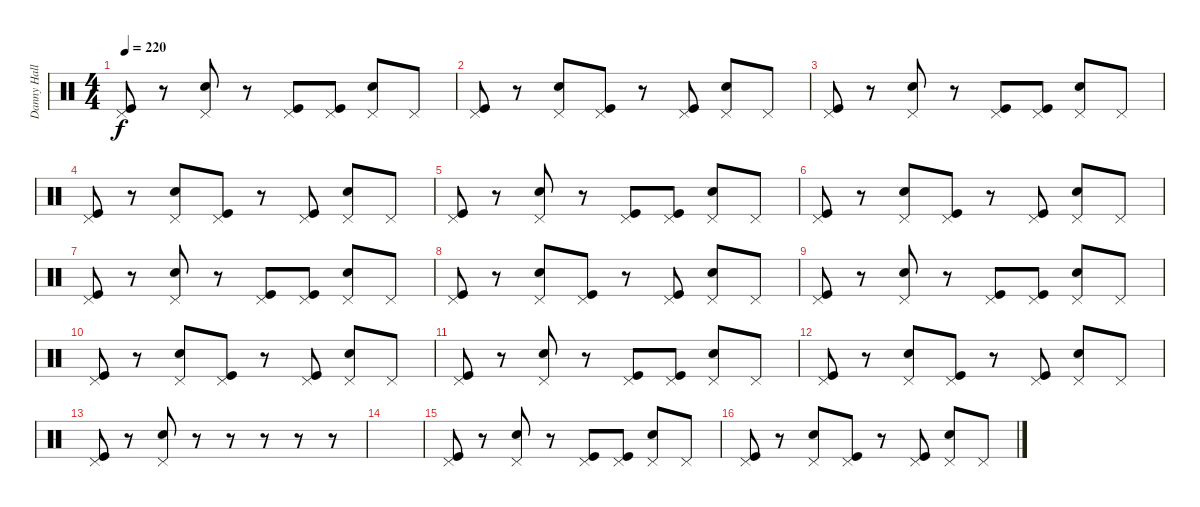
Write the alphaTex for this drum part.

\track ("Danny Hall" "Danny Hall") {instrument percussion}
\staff {score}
\articulation defaults
\ts (4 4)
\tempo 220
\clef neutral
\ks c
("Pedal Hi-Hat (hit)" "Kick (hit)").8{dy f} r.8 ("Pedal Hi-Hat (hit)" "Snare (hit) 2").8 r.8 ("Pedal Hi-Hat (hit)" "Kick (hit)").8 ("Pedal Hi-Hat (hit)" "Kick (hit)").8 ("Pedal Hi-Hat (hit)" "Snare (hit) 2").8 "Pedal Hi-Hat (hit)".8 |
("Pedal Hi-Hat (hit)" "Kick (hit)").8 r.8 ("Pedal Hi-Hat (hit)" "Snare (hit) 2").8 ("Pedal Hi-Hat (hit)" "Kick (hit)").8 r.8 ("Pedal Hi-Hat (hit)" "Kick (hit)").8 ("Pedal Hi-Hat (hit)" "Snare (hit) 2").8 "Pedal Hi-Hat (hit)".8 |
("Pedal Hi-Hat (hit)" "Kick (hit)").8 r.8 ("Pedal Hi-Hat (hit)" "Snare (hit) 2").8 r.8 ("Pedal Hi-Hat (hit)" "Kick (hit)").8 ("Pedal Hi-Hat (hit)" "Kick (hit)").8 ("Pedal Hi-Hat (hit)" "Snare (hit) 2").8 "Pedal Hi-Hat (hit)".8 |
("Pedal Hi-Hat (hit)" "Kick (hit)").8 r.8 ("Pedal Hi-Hat (hit)" "Snare (hit) 2").8 ("Pedal Hi-Hat (hit)" "Kick (hit)").8 r.8 ("Pedal Hi-Hat (hit)" "Kick (hit)").8 ("Pedal Hi-Hat (hit)" "Snare (hit) 2").8 "Pedal Hi-Hat (hit)".8 |
("Pedal Hi-Hat (hit)" "Kick (hit)").8 r.8 ("Pedal Hi-Hat (hit)" "Snare (hit) 2").8 r.8 ("Pedal Hi-Hat (hit)" "Kick (hit)").8 ("Pedal Hi-Hat (hit)" "Kick (hit)").8 ("Pedal Hi-Hat (hit)" "Snare (hit) 2").8 "Pedal Hi-Hat (hit)".8 |
("Pedal Hi-Hat (hit)" "Kick (hit)").8 r.8 ("Pedal Hi-Hat (hit)" "Snare (hit) 2").8 ("Pedal Hi-Hat (hit)" "Kick (hit)").8 r.8 ("Pedal Hi-Hat (hit)" "Kick (hit)").8 ("Pedal Hi-Hat (hit)" "Snare (hit) 2").8 "Pedal Hi-Hat (hit)".8 |
("Pedal Hi-Hat (hit)" "Kick (hit)").8 r.8 ("Pedal Hi-Hat (hit)" "Snare (hit) 2").8 r.8 ("Pedal Hi-Hat (hit)" "Kick (hit)").8 ("Pedal Hi-Hat (hit)" "Kick (hit)").8 ("Pedal Hi-Hat (hit)" "Snare (hit) 2").8 "Pedal Hi-Hat (hit)".8 |
("Pedal Hi-Hat (hit)" "Kick (hit)").8 r.8 ("Pedal Hi-Hat (hit)" "Snare (hit) 2").8 ("Pedal Hi-Hat (hit)" "Kick (hit)").8 r.8 ("Pedal Hi-Hat (hit)" "Kick (hit)").8 ("Pedal Hi-Hat (hit)" "Snare (hit) 2").8 "Pedal Hi-Hat (hit)".8 |
("Pedal Hi-Hat (hit)" "Kick (hit)").8 r.8 ("Pedal Hi-Hat (hit)" "Snare (hit) 2").8 r.8 ("Pedal Hi-Hat (hit)" "Kick (hit)").8 ("Pedal Hi-Hat (hit)" "Kick (hit)").8 ("Pedal Hi-Hat (hit)" "Snare (hit) 2").8 "Pedal Hi-Hat (hit)".8 |
("Pedal Hi-Hat (hit)" "Kick (hit)").8 r.8 ("Pedal Hi-Hat (hit)" "Snare (hit) 2").8 ("Pedal Hi-Hat (hit)" "Kick (hit)").8 r.8 ("Pedal Hi-Hat (hit)" "Kick (hit)").8 ("Pedal Hi-Hat (hit)" "Snare (hit) 2").8 "Pedal Hi-Hat (hit)".8 |
("Pedal Hi-Hat (hit)" "Kick (hit)").8 r.8 ("Pedal Hi-Hat (hit)" "Snare (hit) 2").8 r.8 ("Pedal Hi-Hat (hit)" "Kick (hit)").8 ("Pedal Hi-Hat (hit)" "Kick (hit)").8 ("Pedal Hi-Hat (hit)" "Snare (hit) 2").8 "Pedal Hi-Hat (hit)".8 |
("Pedal Hi-Hat (hit)" "Kick (hit)").8 r.8 ("Pedal Hi-Hat (hit)" "Snare (hit) 2").8 ("Pedal Hi-Hat (hit)" "Kick (hit)").8 r.8 ("Pedal Hi-Hat (hit)" "Kick (hit)").8 ("Pedal Hi-Hat (hit)" "Snare (hit) 2").8 "Pedal Hi-Hat (hit)".8 |
("Pedal Hi-Hat (hit)" "Kick (hit)").8 r.8 ("Pedal Hi-Hat (hit)" "Snare (hit) 2").8 r.8 r.8 r.8 r.8 r.8 |
|
("Pedal Hi-Hat (hit)" "Kick (hit)").8 r.8 ("Pedal Hi-Hat (hit)" "Snare (hit) 2").8 r.8 ("Pedal Hi-Hat (hit)" "Kick (hit)").8 ("Pedal Hi-Hat (hit)" "Kick (hit)").8 ("Pedal Hi-Hat (hit)" "Snare (hit) 2").8 "Pedal Hi-Hat (hit)".8 |
("Pedal Hi-Hat (hit)" "Kick (hit)").8 r.8 ("Pedal Hi-Hat (hit)" "Snare (hit) 2").8 ("Pedal Hi-Hat (hit)" "Kick (hit)").8 r.8 ("Pedal Hi-Hat (hit)" "Kick (hit)").8 ("Pedal Hi-Hat (hit)" "Snare (hit) 2").8 "Pedal Hi-Hat (hit)".8
